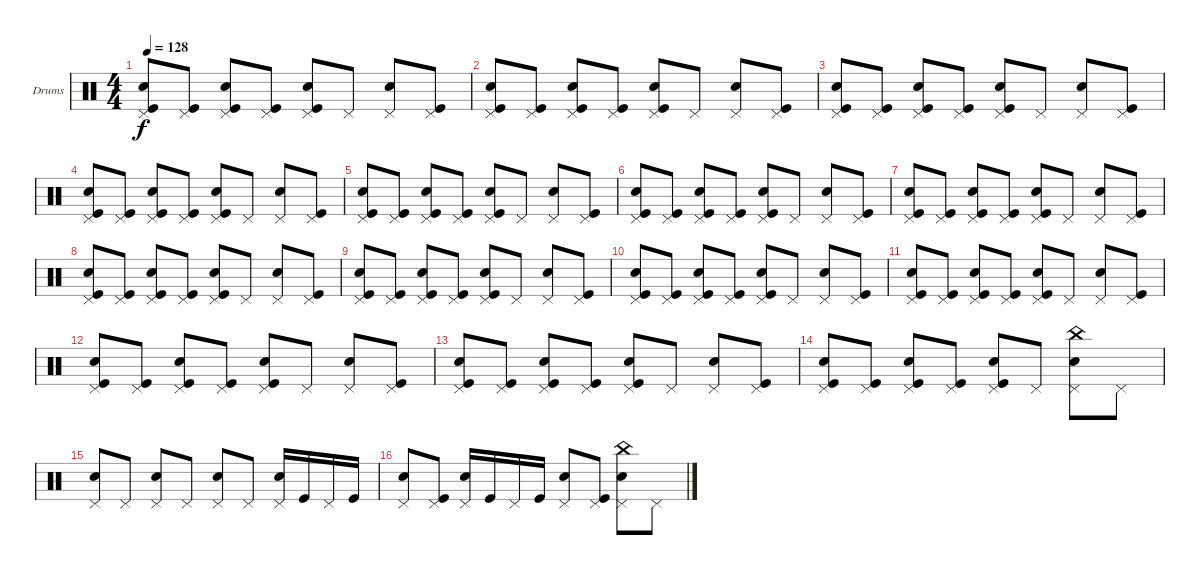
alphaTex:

\defaultSystemsLayout 4
\bracketExtendMode groupsimilarinstruments
\firstSystemTrackNameOrientation horizontal
\otherSystemsTrackNameOrientation horizontal
\track ("Drumkit" "Drums") {instrument percussion}
\staff {score}
\articulation defaults
\ts (4 4)
\tempo 128
\clef neutral
\ks c
("Pedal Hi-Hat (hit)" "Kick (hit)" "Snare (hit) 2").8{dy f} ("Pedal Hi-Hat (hit)" "Kick (hit)").8 ("Pedal Hi-Hat (hit)" "Kick (hit)" "Snare (hit) 2").8 ("Pedal Hi-Hat (hit)" "Kick (hit)").8 ("Pedal Hi-Hat (hit)" "Kick (hit)" "Snare (hit) 2").8 "Pedal Hi-Hat (hit)".8 ("Pedal Hi-Hat (hit)" "Snare (hit) 2").8 ("Pedal Hi-Hat (hit)" "Kick (hit)").8 |
("Pedal Hi-Hat (hit)" "Kick (hit)" "Snare (hit) 2").8 ("Pedal Hi-Hat (hit)" "Kick (hit)").8 ("Pedal Hi-Hat (hit)" "Kick (hit)" "Snare (hit) 2").8 ("Pedal Hi-Hat (hit)" "Kick (hit)").8 ("Pedal Hi-Hat (hit)" "Kick (hit)" "Snare (hit) 2").8 "Pedal Hi-Hat (hit)".8 ("Pedal Hi-Hat (hit)" "Snare (hit) 2").8 ("Pedal Hi-Hat (hit)" "Kick (hit)").8 |
("Pedal Hi-Hat (hit)" "Kick (hit)" "Snare (hit) 2").8 ("Pedal Hi-Hat (hit)" "Kick (hit)").8 ("Pedal Hi-Hat (hit)" "Kick (hit)" "Snare (hit) 2").8 ("Pedal Hi-Hat (hit)" "Kick (hit)").8 ("Pedal Hi-Hat (hit)" "Kick (hit)" "Snare (hit) 2").8 "Pedal Hi-Hat (hit)".8 ("Pedal Hi-Hat (hit)" "Snare (hit) 2").8 ("Pedal Hi-Hat (hit)" "Kick (hit)").8 |
("Pedal Hi-Hat (hit)" "Kick (hit)" "Snare (hit) 2").8 ("Pedal Hi-Hat (hit)" "Kick (hit)").8 ("Pedal Hi-Hat (hit)" "Kick (hit)" "Snare (hit) 2").8 ("Pedal Hi-Hat (hit)" "Kick (hit)").8 ("Pedal Hi-Hat (hit)" "Kick (hit)" "Snare (hit) 2").8 "Pedal Hi-Hat (hit)".8 ("Pedal Hi-Hat (hit)" "Snare (hit) 2").8 ("Pedal Hi-Hat (hit)" "Kick (hit)").8 |
("Pedal Hi-Hat (hit)" "Kick (hit)" "Snare (hit) 2").8 ("Pedal Hi-Hat (hit)" "Kick (hit)").8 ("Pedal Hi-Hat (hit)" "Kick (hit)" "Snare (hit) 2").8 ("Pedal Hi-Hat (hit)" "Kick (hit)").8 ("Pedal Hi-Hat (hit)" "Kick (hit)" "Snare (hit) 2").8 "Pedal Hi-Hat (hit)".8 ("Pedal Hi-Hat (hit)" "Snare (hit) 2").8 ("Pedal Hi-Hat (hit)" "Kick (hit)").8 |
("Pedal Hi-Hat (hit)" "Kick (hit)" "Snare (hit) 2").8 ("Pedal Hi-Hat (hit)" "Kick (hit)").8 ("Pedal Hi-Hat (hit)" "Kick (hit)" "Snare (hit) 2").8 ("Pedal Hi-Hat (hit)" "Kick (hit)").8 ("Pedal Hi-Hat (hit)" "Kick (hit)" "Snare (hit) 2").8 "Pedal Hi-Hat (hit)".8 ("Pedal Hi-Hat (hit)" "Snare (hit) 2").8 ("Pedal Hi-Hat (hit)" "Kick (hit)").8 |
("Pedal Hi-Hat (hit)" "Kick (hit)" "Snare (hit) 2").8 ("Pedal Hi-Hat (hit)" "Kick (hit)").8 ("Pedal Hi-Hat (hit)" "Kick (hit)" "Snare (hit) 2").8 ("Pedal Hi-Hat (hit)" "Kick (hit)").8 ("Pedal Hi-Hat (hit)" "Kick (hit)" "Snare (hit) 2").8 "Pedal Hi-Hat (hit)".8 ("Pedal Hi-Hat (hit)" "Snare (hit) 2").8 ("Pedal Hi-Hat (hit)" "Kick (hit)").8 |
("Pedal Hi-Hat (hit)" "Kick (hit)" "Snare (hit) 2").8 ("Pedal Hi-Hat (hit)" "Kick (hit)").8 ("Pedal Hi-Hat (hit)" "Kick (hit)" "Snare (hit) 2").8 ("Pedal Hi-Hat (hit)" "Kick (hit)").8 ("Pedal Hi-Hat (hit)" "Kick (hit)" "Snare (hit) 2").8 "Pedal Hi-Hat (hit)".8 ("Pedal Hi-Hat (hit)" "Snare (hit) 2").8 ("Pedal Hi-Hat (hit)" "Kick (hit)").8 |
("Pedal Hi-Hat (hit)" "Kick (hit)" "Snare (hit) 2").8 ("Pedal Hi-Hat (hit)" "Kick (hit)").8 ("Pedal Hi-Hat (hit)" "Kick (hit)" "Snare (hit) 2").8 ("Pedal Hi-Hat (hit)" "Kick (hit)").8 ("Pedal Hi-Hat (hit)" "Kick (hit)" "Snare (hit) 2").8 "Pedal Hi-Hat (hit)".8 ("Pedal Hi-Hat (hit)" "Snare (hit) 2").8 ("Pedal Hi-Hat (hit)" "Kick (hit)").8 |
("Pedal Hi-Hat (hit)" "Kick (hit)" "Snare (hit) 2").8 ("Pedal Hi-Hat (hit)" "Kick (hit)").8 ("Pedal Hi-Hat (hit)" "Kick (hit)" "Snare (hit) 2").8 ("Pedal Hi-Hat (hit)" "Kick (hit)").8 ("Pedal Hi-Hat (hit)" "Kick (hit)" "Snare (hit) 2").8 "Pedal Hi-Hat (hit)".8 ("Pedal Hi-Hat (hit)" "Snare (hit) 2").8 ("Pedal Hi-Hat (hit)" "Kick (hit)").8 |
("Pedal Hi-Hat (hit)" "Kick (hit)" "Snare (hit) 2").8 ("Pedal Hi-Hat (hit)" "Kick (hit)").8 ("Pedal Hi-Hat (hit)" "Kick (hit)" "Snare (hit) 2").8 ("Pedal Hi-Hat (hit)" "Kick (hit)").8 ("Pedal Hi-Hat (hit)" "Kick (hit)" "Snare (hit) 2").8 "Pedal Hi-Hat (hit)".8 ("Pedal Hi-Hat (hit)" "Snare (hit) 2").8 ("Pedal Hi-Hat (hit)" "Kick (hit)").8 |
("Pedal Hi-Hat (hit)" "Kick (hit)" "Snare (hit) 2").8 ("Pedal Hi-Hat (hit)" "Kick (hit)").8 ("Pedal Hi-Hat (hit)" "Kick (hit)" "Snare (hit) 2").8 ("Pedal Hi-Hat (hit)" "Kick (hit)").8 ("Pedal Hi-Hat (hit)" "Kick (hit)" "Snare (hit) 2").8 "Pedal Hi-Hat (hit)".8 ("Pedal Hi-Hat (hit)" "Snare (hit) 2").8 ("Pedal Hi-Hat (hit)" "Kick (hit)").8 |
("Pedal Hi-Hat (hit)" "Kick (hit)" "Snare (hit) 2").8 ("Pedal Hi-Hat (hit)" "Kick (hit)").8 ("Pedal Hi-Hat (hit)" "Kick (hit)" "Snare (hit) 2").8 ("Pedal Hi-Hat (hit)" "Kick (hit)").8 ("Pedal Hi-Hat (hit)" "Kick (hit)" "Snare (hit) 2").8 "Pedal Hi-Hat (hit)".8 ("Pedal Hi-Hat (hit)" "Snare (hit) 2").8 ("Pedal Hi-Hat (hit)" "Kick (hit)").8 |
("Pedal Hi-Hat (hit)" "Kick (hit)" "Snare (hit) 2").8 ("Pedal Hi-Hat (hit)" "Kick (hit)").8 ("Pedal Hi-Hat (hit)" "Kick (hit)" "Snare (hit) 2").8 ("Pedal Hi-Hat (hit)" "Kick (hit)").8 ("Pedal Hi-Hat (hit)" "Kick (hit)" "Snare (hit) 2").8 "Pedal Hi-Hat (hit)".8 ("Pedal Hi-Hat (hit)" "Snare (hit) 2" "China (hit)").8 "Pedal Hi-Hat (hit)".8 |
("Pedal Hi-Hat (hit)" "Snare (hit) 2").8 "Pedal Hi-Hat (hit)".8 ("Pedal Hi-Hat (hit)" "Snare (hit) 2").8 "Pedal Hi-Hat (hit)".8 ("Pedal Hi-Hat (hit)" "Snare (hit) 2").8 "Pedal Hi-Hat (hit)".8 ("Pedal Hi-Hat (hit)" "Snare (hit) 2").16 "Kick (hit)".16 "Pedal Hi-Hat (hit)".16 "Kick (hit)".16 |
("Snare (hit) 2" "Pedal Hi-Hat (hit)").8 ("Kick (hit)" "Pedal Hi-Hat (hit)").8 ("Snare (hit) 2" "Pedal Hi-Hat (hit)").16 "Kick (hit)".16 "Pedal Hi-Hat (hit)".16 "Kick (hit)".16 ("Snare (hit) 2" "Pedal Hi-Hat (hit)").8 ("Pedal Hi-Hat (hit)" "Kick (hit)").8 ("Pedal Hi-Hat (hit)" "Snare (hit) 2" "China (hit)").8 "Pedal Hi-Hat (hit)".8
